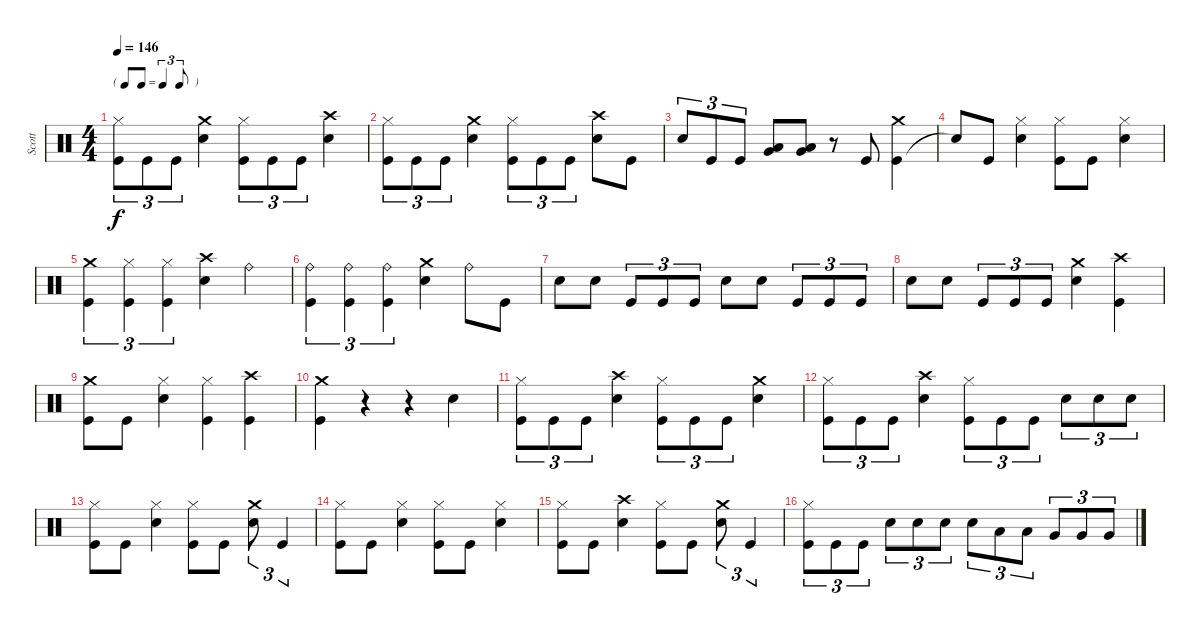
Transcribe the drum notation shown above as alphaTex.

\track ("Scott" "Scott") {instrument percussion}
\staff {score}
\articulation defaults
\ts (4 4)
\tf triplet8th
\tempo 146
\clef neutral
\ks c
("Kick (hit)" "Hi-Hat (closed)").8{tu (3 2) dy f} "Kick (hit)".8{tu (3 2)} "Kick (hit)".8{tu (3 2)} ("Snare (hit) 2" "Crash medium (hit)").4 ("Kick (hit)" "Hi-Hat (closed)").8{tu (3 2)} "Kick (hit)".8{tu (3 2)} "Kick (hit)".8{tu (3 2)} ("Snare (hit) 2" "Crash high (hit)").4 |
("Kick (hit)" "Hi-Hat (closed)").8{tu (3 2)} "Kick (hit)".8{tu (3 2)} "Kick (hit)".8{tu (3 2)} ("Snare (hit) 2" "Crash medium (hit)").4 ("Kick (hit)" "Hi-Hat (closed)").8{tu (3 2)} "Kick (hit)".8{tu (3 2)} "Kick (hit)".8{tu (3 2)} ("Snare (hit) 2" "Crash high (hit)").8 "Kick (hit)".8 |
"Snare (hit) 2".8{tu (3 2)} "Kick (hit)".8{tu (3 2)} "Kick (hit)".8{tu (3 2)} ("Low Tom (hit)" "Very Low Tom (hit)").8 ("Low Tom (hit)" "Very Low Tom (hit)").8 r.8 "Kick (hit)".8 ("Kick (hit)" "Crash medium (hit)").4 |
"Snare (hit)"{t}.8 "Kick (hit)".8 ("Snare (hit) 2" "Hi-Hat (closed)").4 ("Kick (hit)" "Hi-Hat (closed)").8 "Kick (hit)".8 ("Snare (hit) 2" "Hi-Hat (closed)").4 |
("Kick (hit)" "Crash medium (hit)").4{tu (3 2)} ("Kick (hit)" "Hi-Hat (closed)").4{tu (3 2)} ("Kick (hit)" "Hi-Hat (closed)").4{tu (3 2)} ("Snare (hit) 2" "Crash high (hit)").4 "Ride (bell)".4 |
("Kick (hit)" "Ride (bell)").4{tu (3 2)} ("Kick (hit)" "Ride (bell)").4{tu (3 2)} ("Kick (hit)" "Ride (bell)").4{tu (3 2)} ("Snare (hit) 2" "Crash medium (hit)").4 "Ride (bell)".8 "Kick (hit)".8 |
"Snare (hit) 2".8 "Snare (hit) 2".8 "Kick (hit)".8{tu (3 2)} "Kick (hit)".8{tu (3 2)} "Kick (hit)".8{tu (3 2)} "Snare (hit) 2".8 "Snare (hit) 2".8 "Kick (hit)".8{tu (3 2)} "Kick (hit)".8{tu (3 2)} "Kick (hit)".8{tu (3 2)} |
"Snare (hit) 2".8 "Snare (hit) 2".8 "Kick (hit)".8{tu (3 2)} "Kick (hit)".8{tu (3 2)} "Kick (hit)".8{tu (3 2)} ("Snare (hit) 2" "Crash medium (hit)").4 ("Kick (hit)" "Crash high (hit)").4 |
("Kick (hit)" "Crash medium (hit)").8 "Kick (hit)".8 ("Snare (hit) 2" "Hi-Hat (closed)").4 ("Kick (hit)" "Hi-Hat (closed)").4 ("Kick (hit)" "Crash high (hit)").4 |
("Kick (hit)" "Crash medium (hit)").4 r.4 r.4 "Snare (hit) 2".4 |
("Kick (hit)" "Hi-Hat (closed)").8{tu (3 2)} "Kick (hit)".8{tu (3 2)} "Kick (hit)".8{tu (3 2)} ("Snare (hit) 2" "Crash high (hit)").4 ("Kick (hit)" "Hi-Hat (closed)").8{tu (3 2)} "Kick (hit)".8{tu (3 2)} "Kick (hit)".8{tu (3 2)} ("Snare (hit) 2" "Crash medium (hit)").4 |
("Kick (hit)" "Hi-Hat (closed)").8{tu (3 2)} "Kick (hit)".8{tu (3 2)} "Kick (hit)".8{tu (3 2)} ("Snare (hit) 2" "Crash high (hit)").4 ("Kick (hit)" "Hi-Hat (closed)").8{tu (3 2)} "Kick (hit)".8{tu (3 2)} "Kick (hit)".8{tu (3 2)} "Snare (hit) 2".8{tu (3 2)} "Snare (hit) 2".8{tu (3 2)} "Snare (hit) 2".8{tu (3 2)} |
("Kick (hit)" "Hi-Hat (closed)").8 "Kick (hit)".8 ("Snare (hit) 2" "Hi-Hat (closed)").4 ("Kick (hit)" "Hi-Hat (closed)").8 "Kick (hit)".8 ("Snare (hit) 2" "Crash medium (hit)").8{tu (3 2)} "Kick (hit)".4{tu (3 2)} |
("Kick (hit)" "Hi-Hat (closed)").8 "Kick (hit)".8 ("Snare (hit) 2" "Hi-Hat (closed)").4 ("Kick (hit)" "Hi-Hat (closed)").8 "Kick (hit)".8 ("Snare (hit) 2" "Hi-Hat (closed)").4 |
("Kick (hit)" "Hi-Hat (closed)").8 "Kick (hit)".8 ("Snare (hit) 2" "Crash high (hit)").4 ("Kick (hit)" "Hi-Hat (closed)").8 "Kick (hit)".8 ("Snare (hit) 2" "Crash medium (hit)").8{tu (3 2)} "Kick (hit)".4{tu (3 2)} |
("Kick (hit)" "Hi-Hat (closed)").8{tu (3 2)} "Kick (hit)".8{tu (3 2)} "Kick (hit)".8{tu (3 2)} "Snare (hit) 2".8{tu (3 2)} "Snare (hit) 2".8{tu (3 2)} "Snare (hit) 2".8{tu (3 2)} "Snare (hit) 2".8{tu (3 2)} "Low Tom (hit)".8{tu (3 2)} "Low Tom (hit)".8{tu (3 2)} "Very Low Tom (hit)".8{tu (3 2)} "Very Low Tom (hit)".8{tu (3 2)} "Very Low Tom (hit)".8{tu (3 2)}
